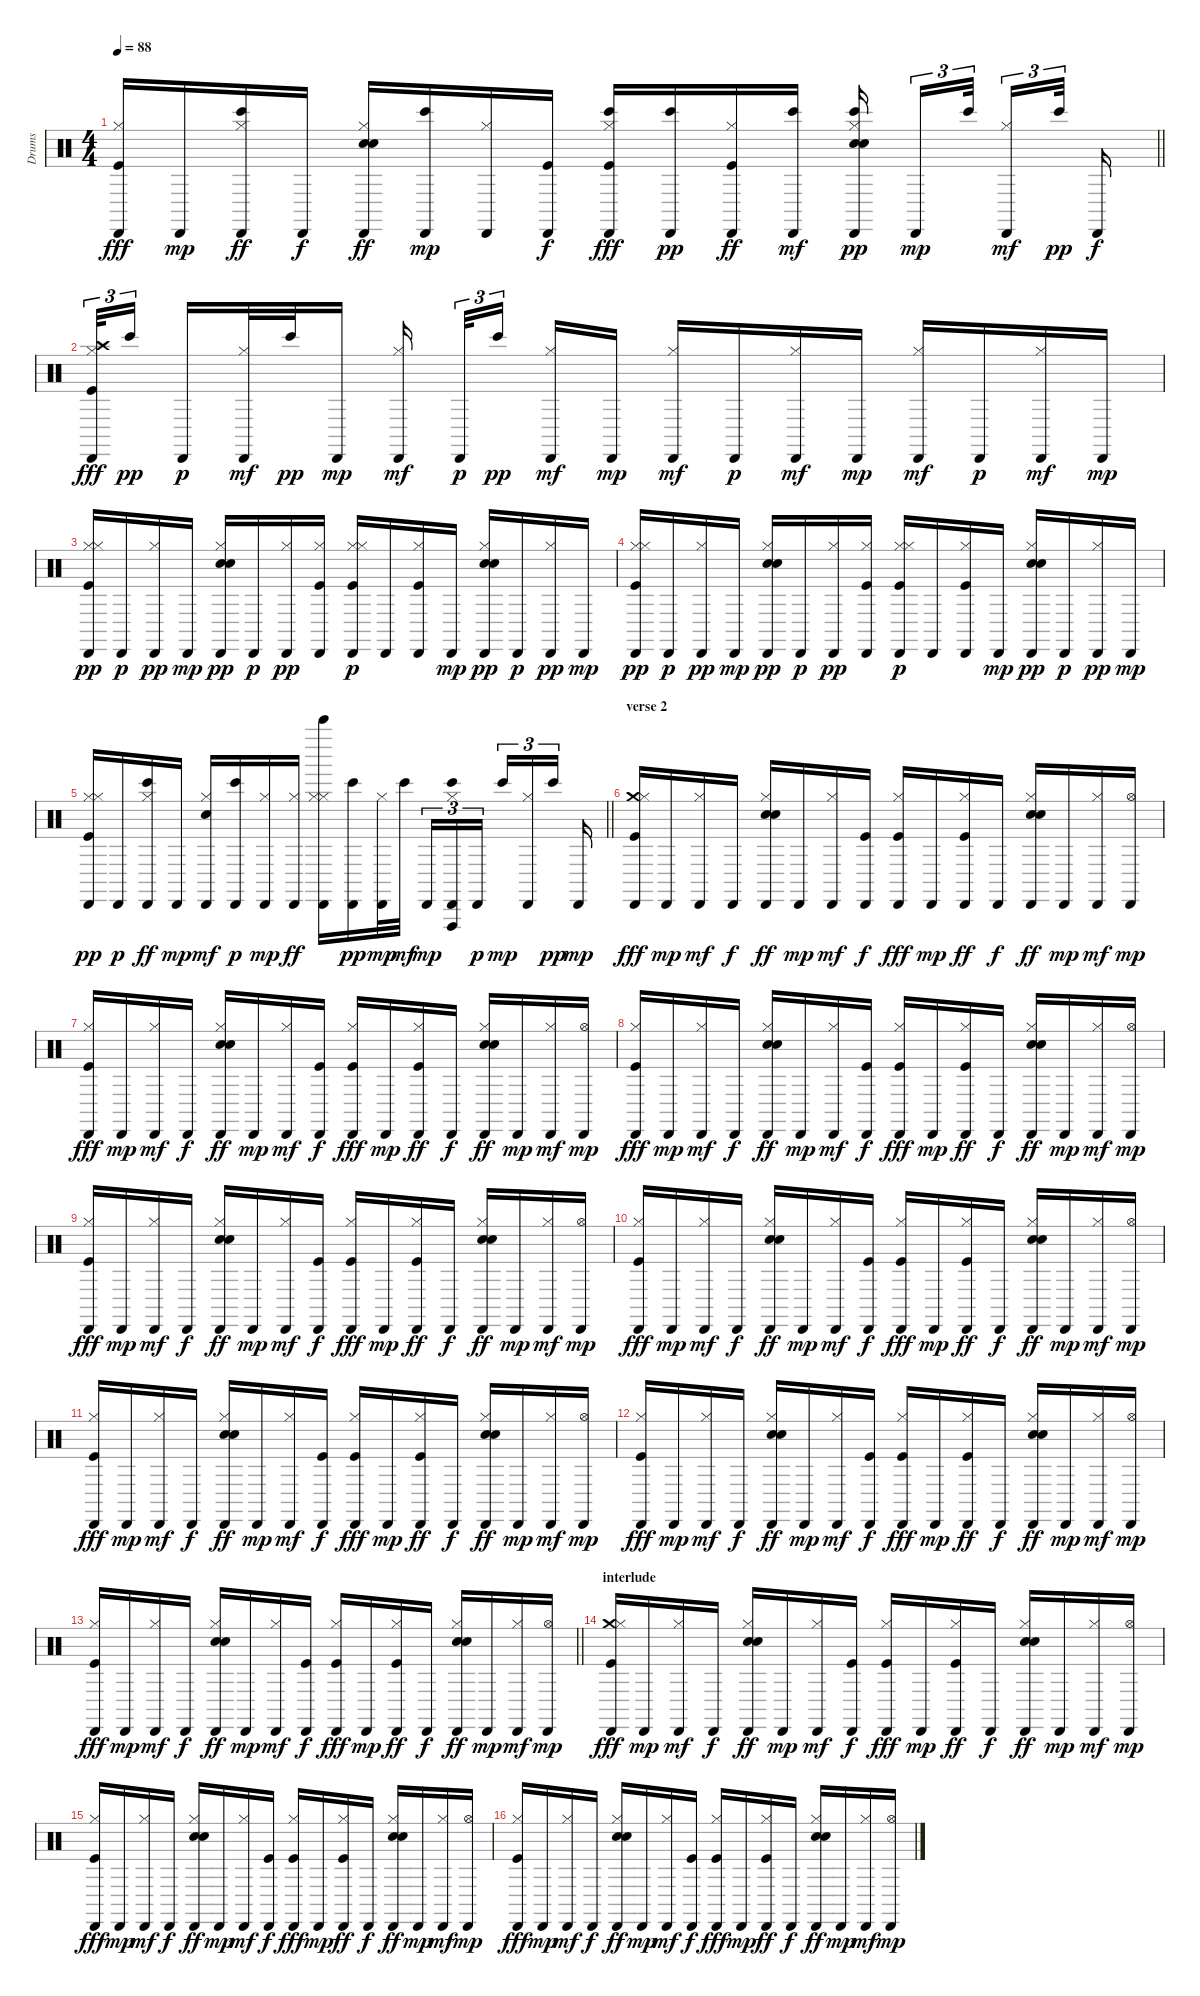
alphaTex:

\track ("Drums" "Drums") {instrument percussion}
\staff {score}
\articulation defaults
\ts (4 4)
\tempo 88
\clef neutral
\barLineRight lightlight
\ks c
("Cabasa (hit)" "Hi-Hat (closed)" "Kick (hit)").16{dy fff} "Cabasa (hit)".16{dy mp} ("Cabasa (hit)" "Hi-Hat (closed)" "Bongo High (hit)").16{dy ff} "Cabasa (hit)".16{dy f} ("Cabasa (hit)" "Electric Snare (hit)" "Snare (hit) 2" "Hi-Hat (closed)").16{dy ff} ("Cabasa (hit)" "Bongo High (hit)").16{dy mp} ("Cabasa (hit)" "Hi-Hat (closed)").16 ("Cabasa (hit)" "Kick (hit)").16{dy f} ("Cabasa (hit)" "Hi-Hat (closed)" "Bongo High (hit)" "Kick (hit)").16{dy fff} ("Cabasa (hit)" "Bongo High (hit)").16{dy pp} ("Cabasa (hit)" "Hi-Hat (closed)" "Kick (hit)").16{dy ff} ("Cabasa (hit)" "Bongo High (hit)").16{dy mf} ("Cabasa (hit)" "Electric Snare (hit)" "Snare (hit) 2" "Hi-Hat (closed)" "Bongo High (hit)").16{dy pp} "Cabasa (hit)".16{tu (3 2) dy mp} "Bongo High (hit)".32{tu (3 2)} ("Cabasa (hit)" "Hi-Hat (closed)").16{tu (3 2) dy mf} "Bongo High (hit)".32{tu (3 2) dy pp} "Cabasa (hit)".16{dy f} |
("Crash high (hit)" "Cabasa (hit)" "Hi-Hat (closed)" "Kick (hit)").32{tu (3 2) dy fff} "Bongo High (hit)".16{tu (3 2) dy pp} "Cabasa (hit)".16{dy p} ("Cabasa (hit)" "Hi-Hat (closed)").32{dy mf} "Bongo High (hit)".32{dy pp} "Cabasa (hit)".16{dy mp} ("Cabasa (hit)" "Hi-Hat (closed)").16{dy mf} "Cabasa (hit)".32{tu (3 2) dy p} "Bongo High (hit)".16{tu (3 2) dy pp} ("Cabasa (hit)" "Hi-Hat (closed)").16{dy mf} "Cabasa (hit)".16{dy mp} ("Cabasa (hit)" "Hi-Hat (closed)").16{dy mf} "Cabasa (hit)".16{dy p} ("Cabasa (hit)" "Hi-Hat (closed)").16{dy mf} "Cabasa (hit)".16{dy mp} ("Cabasa (hit)" "Hi-Hat (closed)").16{dy mf} "Cabasa (hit)".16{dy p} ("Cabasa (hit)" "Hi-Hat (closed)").16{dy mf} "Cabasa (hit)".16{dy mp} |
("Cabasa (hit)" "Hi-Hat (closed)" "Hi-Hat (closed)" "Kick (hit)").16{dy pp} "Cabasa (hit)".16{dy p} ("Cabasa (hit)" "Hi-Hat (closed)").16{dy pp} "Cabasa (hit)".16{dy mp} ("Cabasa (hit)" "Hand Clap (hit)" "Snare (hit) 2" "Hi-Hat (closed)").16{dy pp} "Cabasa (hit)".16{dy p} ("Cabasa (hit)" "Hi-Hat (closed)").16{dy pp} ("Cabasa (hit)" "Hi-Hat (closed)" "Kick (hit)").16 ("Cabasa (hit)" "Hi-Hat (closed)" "Hi-Hat (closed)" "Kick (hit)").16{dy p} "Cabasa (hit)".16 ("Cabasa (hit)" "Hi-Hat (closed)" "Kick (hit)").16 "Cabasa (hit)".16{dy mp} ("Cabasa (hit)" "Hand Clap (hit)" "Snare (hit) 2" "Hi-Hat (closed)").16{dy pp} "Cabasa (hit)".16{dy p} ("Cabasa (hit)" "Hi-Hat (closed)").16{dy pp} "Cabasa (hit)".16{dy mp} |
("Cabasa (hit)" "Hi-Hat (closed)" "Hi-Hat (closed)" "Kick (hit)").16{dy pp} "Cabasa (hit)".16{dy p} ("Cabasa (hit)" "Hi-Hat (closed)").16{dy pp} "Cabasa (hit)".16{dy mp} ("Cabasa (hit)" "Hand Clap (hit)" "Snare (hit) 2" "Hi-Hat (closed)").16{dy pp} "Cabasa (hit)".16{dy p} ("Cabasa (hit)" "Hi-Hat (closed)").16{dy pp} ("Cabasa (hit)" "Hi-Hat (closed)" "Kick (hit)").16 ("Cabasa (hit)" "Hi-Hat (closed)" "Hi-Hat (closed)" "Kick (hit)").16{dy p} "Cabasa (hit)".16 ("Cabasa (hit)" "Hi-Hat (closed)" "Kick (hit)").16 "Cabasa (hit)".16{dy mp} ("Cabasa (hit)" "Hand Clap (hit)" "Snare (hit) 2" "Hi-Hat (closed)").16{dy pp} "Cabasa (hit)".16{dy p} ("Cabasa (hit)" "Hi-Hat (closed)").16{dy pp} "Cabasa (hit)".16{dy mp} |
\barLineRight lightlight
("Cabasa (hit)" "Hi-Hat (closed)" "Hi-Hat (closed)" "Kick (hit)").16{dy pp} "Cabasa (hit)".16{dy p} ("Cabasa (hit)" "Hi-Hat (closed)" "Bongo High (hit)").16{dy ff} "Cabasa (hit)".16{dy mp} ("Cabasa (hit)" "Snare (hit) 2" "Hi-Hat (closed)").16{dy mf} ("Cabasa (hit)" "Bongo High (hit)").16{dy p} ("Cabasa (hit)" "Hi-Hat (closed)").16{dy mp} ("Cabasa (hit)" "Hi-Hat (closed)").16{dy ff} ("Cabasa (hit)" "Bell Tree (hit)" "Hi-Hat (closed)" "Hi-Hat (closed)").16 ("Cabasa (hit)" "Bongo High (hit)").16{dy pp} ("Cabasa (hit)" "Hi-Hat (closed)").32{dy mp} "Bongo High (hit)".32{dy mf} "Cabasa (hit)".16{tu (3 2) dy mp} ("Cabasa (hit)" "Vibraslap (hit)" "Hi-Hat (closed)" "Bongo High (hit)").16{tu (3 2)} "Cabasa (hit)".16{tu (3 2) dy p} "Bongo High (hit)".16{tu (3 2) dy mp} ("Cabasa (hit)" "Hi-Hat (closed)").16{tu (3 2)} "Bongo High (hit)".16{tu (3 2) dy pp} "Cabasa (hit)".16{dy mp} |
\section ("" "verse 2")
("Cabasa (hit)" "Crash medium (hit)" "Hi-Hat (closed)" "Kick (hit)").16{dy fff} "Cabasa (hit)".16{dy mp} ("Cabasa (hit)" "Hi-Hat (closed)").16{dy mf} "Cabasa (hit)".16{dy f} ("Cabasa (hit)" "Electric Snare (hit)" "Snare (hit) 2" "Hi-Hat (closed)").16{dy ff} "Cabasa (hit)".16{dy mp} ("Cabasa (hit)" "Hi-Hat (closed)").16{dy mf} ("Cabasa (hit)" "Kick (hit)").16{dy f} ("Cabasa (hit)" "Hi-Hat (closed)" "Kick (hit)").16{dy fff} "Cabasa (hit)".16{dy mp} ("Cabasa (hit)" "Hi-Hat (closed)" "Kick (hit)").16{dy ff} "Cabasa (hit)".16{dy f} ("Cabasa (hit)" "Electric Snare (hit)" "Snare (hit) 2" "Hi-Hat (closed)").16{dy ff} "Cabasa (hit)".16{dy mp} ("Cabasa (hit)" "Hi-Hat (closed)").16{dy mf} ("Cabasa (hit)" "Hi-Hat (open)").16{dy mp} |
("Cabasa (hit)" "Hi-Hat (closed)" "Kick (hit)").16{dy fff} "Cabasa (hit)".16{dy mp} ("Cabasa (hit)" "Hi-Hat (closed)").16{dy mf} "Cabasa (hit)".16{dy f} ("Cabasa (hit)" "Electric Snare (hit)" "Snare (hit) 2" "Hi-Hat (closed)").16{dy ff} "Cabasa (hit)".16{dy mp} ("Cabasa (hit)" "Hi-Hat (closed)").16{dy mf} ("Cabasa (hit)" "Kick (hit)").16{dy f} ("Cabasa (hit)" "Hi-Hat (closed)" "Kick (hit)").16{dy fff} "Cabasa (hit)".16{dy mp} ("Cabasa (hit)" "Hi-Hat (closed)" "Kick (hit)").16{dy ff} "Cabasa (hit)".16{dy f} ("Cabasa (hit)" "Electric Snare (hit)" "Snare (hit) 2" "Hi-Hat (closed)").16{dy ff} "Cabasa (hit)".16{dy mp} ("Cabasa (hit)" "Hi-Hat (closed)").16{dy mf} ("Cabasa (hit)" "Hi-Hat (open)").16{dy mp} |
("Cabasa (hit)" "Hi-Hat (closed)" "Kick (hit)").16{dy fff} "Cabasa (hit)".16{dy mp} ("Cabasa (hit)" "Hi-Hat (closed)").16{dy mf} "Cabasa (hit)".16{dy f} ("Cabasa (hit)" "Electric Snare (hit)" "Snare (hit) 2" "Hi-Hat (closed)").16{dy ff} "Cabasa (hit)".16{dy mp} ("Cabasa (hit)" "Hi-Hat (closed)").16{dy mf} ("Cabasa (hit)" "Kick (hit)").16{dy f} ("Cabasa (hit)" "Hi-Hat (closed)" "Kick (hit)").16{dy fff} "Cabasa (hit)".16{dy mp} ("Cabasa (hit)" "Hi-Hat (closed)" "Kick (hit)").16{dy ff} "Cabasa (hit)".16{dy f} ("Cabasa (hit)" "Electric Snare (hit)" "Snare (hit) 2" "Hi-Hat (closed)").16{dy ff} "Cabasa (hit)".16{dy mp} ("Cabasa (hit)" "Hi-Hat (closed)").16{dy mf} ("Cabasa (hit)" "Hi-Hat (open)").16{dy mp} |
("Cabasa (hit)" "Hi-Hat (closed)" "Kick (hit)").16{dy fff} "Cabasa (hit)".16{dy mp} ("Cabasa (hit)" "Hi-Hat (closed)").16{dy mf} "Cabasa (hit)".16{dy f} ("Cabasa (hit)" "Electric Snare (hit)" "Snare (hit) 2" "Hi-Hat (closed)").16{dy ff} "Cabasa (hit)".16{dy mp} ("Cabasa (hit)" "Hi-Hat (closed)").16{dy mf} ("Cabasa (hit)" "Kick (hit)").16{dy f} ("Cabasa (hit)" "Hi-Hat (closed)" "Kick (hit)").16{dy fff} "Cabasa (hit)".16{dy mp} ("Cabasa (hit)" "Hi-Hat (closed)" "Kick (hit)").16{dy ff} "Cabasa (hit)".16{dy f} ("Cabasa (hit)" "Electric Snare (hit)" "Snare (hit) 2" "Hi-Hat (closed)").16{dy ff} "Cabasa (hit)".16{dy mp} ("Cabasa (hit)" "Hi-Hat (closed)").16{dy mf} ("Cabasa (hit)" "Hi-Hat (open)").16{dy mp} |
("Cabasa (hit)" "Hi-Hat (closed)" "Kick (hit)").16{dy fff} "Cabasa (hit)".16{dy mp} ("Cabasa (hit)" "Hi-Hat (closed)").16{dy mf} "Cabasa (hit)".16{dy f} ("Cabasa (hit)" "Electric Snare (hit)" "Snare (hit) 2" "Hi-Hat (closed)").16{dy ff} "Cabasa (hit)".16{dy mp} ("Cabasa (hit)" "Hi-Hat (closed)").16{dy mf} ("Cabasa (hit)" "Kick (hit)").16{dy f} ("Cabasa (hit)" "Hi-Hat (closed)" "Kick (hit)").16{dy fff} "Cabasa (hit)".16{dy mp} ("Cabasa (hit)" "Hi-Hat (closed)" "Kick (hit)").16{dy ff} "Cabasa (hit)".16{dy f} ("Cabasa (hit)" "Electric Snare (hit)" "Snare (hit) 2" "Hi-Hat (closed)").16{dy ff} "Cabasa (hit)".16{dy mp} ("Cabasa (hit)" "Hi-Hat (closed)").16{dy mf} ("Cabasa (hit)" "Hi-Hat (open)").16{dy mp} |
("Cabasa (hit)" "Hi-Hat (closed)" "Kick (hit)").16{dy fff} "Cabasa (hit)".16{dy mp} ("Cabasa (hit)" "Hi-Hat (closed)").16{dy mf} "Cabasa (hit)".16{dy f} ("Cabasa (hit)" "Electric Snare (hit)" "Snare (hit) 2" "Hi-Hat (closed)").16{dy ff} "Cabasa (hit)".16{dy mp} ("Cabasa (hit)" "Hi-Hat (closed)").16{dy mf} ("Cabasa (hit)" "Kick (hit)").16{dy f} ("Cabasa (hit)" "Hi-Hat (closed)" "Kick (hit)").16{dy fff} "Cabasa (hit)".16{dy mp} ("Cabasa (hit)" "Hi-Hat (closed)" "Kick (hit)").16{dy ff} "Cabasa (hit)".16{dy f} ("Cabasa (hit)" "Electric Snare (hit)" "Snare (hit) 2" "Hi-Hat (closed)").16{dy ff} "Cabasa (hit)".16{dy mp} ("Cabasa (hit)" "Hi-Hat (closed)").16{dy mf} ("Cabasa (hit)" "Hi-Hat (open)").16{dy mp} |
("Cabasa (hit)" "Hi-Hat (closed)" "Kick (hit)").16{dy fff} "Cabasa (hit)".16{dy mp} ("Cabasa (hit)" "Hi-Hat (closed)").16{dy mf} "Cabasa (hit)".16{dy f} ("Cabasa (hit)" "Electric Snare (hit)" "Snare (hit) 2" "Hi-Hat (closed)").16{dy ff} "Cabasa (hit)".16{dy mp} ("Cabasa (hit)" "Hi-Hat (closed)").16{dy mf} ("Cabasa (hit)" "Kick (hit)").16{dy f} ("Cabasa (hit)" "Hi-Hat (closed)" "Kick (hit)").16{dy fff} "Cabasa (hit)".16{dy mp} ("Cabasa (hit)" "Hi-Hat (closed)" "Kick (hit)").16{dy ff} "Cabasa (hit)".16{dy f} ("Cabasa (hit)" "Electric Snare (hit)" "Snare (hit) 2" "Hi-Hat (closed)").16{dy ff} "Cabasa (hit)".16{dy mp} ("Cabasa (hit)" "Hi-Hat (closed)").16{dy mf} ("Cabasa (hit)" "Hi-Hat (open)").16{dy mp} |
\barLineRight lightlight
("Cabasa (hit)" "Hi-Hat (closed)" "Kick (hit)").16{dy fff} "Cabasa (hit)".16{dy mp} ("Cabasa (hit)" "Hi-Hat (closed)").16{dy mf} "Cabasa (hit)".16{dy f} ("Cabasa (hit)" "Electric Snare (hit)" "Snare (hit) 2" "Hi-Hat (closed)").16{dy ff} "Cabasa (hit)".16{dy mp} ("Cabasa (hit)" "Hi-Hat (closed)").16{dy mf} ("Cabasa (hit)" "Kick (hit)").16{dy f} ("Cabasa (hit)" "Hi-Hat (closed)" "Kick (hit)").16{dy fff} "Cabasa (hit)".16{dy mp} ("Cabasa (hit)" "Hi-Hat (closed)" "Kick (hit)").16{dy ff} "Cabasa (hit)".16{dy f} ("Cabasa (hit)" "Electric Snare (hit)" "Snare (hit) 2" "Hi-Hat (closed)").16{dy ff} "Cabasa (hit)".16{dy mp} ("Cabasa (hit)" "Hi-Hat (closed)").16{dy mf} ("Cabasa (hit)" "Hi-Hat (open)").16{dy mp} |
\section ("" "interlude")
("Cabasa (hit)" "Crash medium (hit)" "Hi-Hat (closed)" "Kick (hit)").16{dy fff} "Cabasa (hit)".16{dy mp} ("Cabasa (hit)" "Hi-Hat (closed)").16{dy mf} "Cabasa (hit)".16{dy f} ("Cabasa (hit)" "Electric Snare (hit)" "Snare (hit) 2" "Hi-Hat (closed)").16{dy ff} "Cabasa (hit)".16{dy mp} ("Cabasa (hit)" "Hi-Hat (closed)").16{dy mf} ("Cabasa (hit)" "Kick (hit)").16{dy f} ("Cabasa (hit)" "Hi-Hat (closed)" "Kick (hit)").16{dy fff} "Cabasa (hit)".16{dy mp} ("Cabasa (hit)" "Hi-Hat (closed)" "Kick (hit)").16{dy ff} "Cabasa (hit)".16{dy f} ("Cabasa (hit)" "Electric Snare (hit)" "Snare (hit) 2" "Hi-Hat (closed)").16{dy ff} "Cabasa (hit)".16{dy mp} ("Cabasa (hit)" "Hi-Hat (closed)").16{dy mf} ("Cabasa (hit)" "Hi-Hat (open)").16{dy mp} |
("Cabasa (hit)" "Hi-Hat (closed)" "Kick (hit)").16{dy fff} "Cabasa (hit)".16{dy mp} ("Cabasa (hit)" "Hi-Hat (closed)").16{dy mf} "Cabasa (hit)".16{dy f} ("Cabasa (hit)" "Electric Snare (hit)" "Snare (hit) 2" "Hi-Hat (closed)").16{dy ff} "Cabasa (hit)".16{dy mp} ("Cabasa (hit)" "Hi-Hat (closed)").16{dy mf} ("Cabasa (hit)" "Kick (hit)").16{dy f} ("Cabasa (hit)" "Hi-Hat (closed)" "Kick (hit)").16{dy fff} "Cabasa (hit)".16{dy mp} ("Cabasa (hit)" "Hi-Hat (closed)" "Kick (hit)").16{dy ff} "Cabasa (hit)".16{dy f} ("Cabasa (hit)" "Electric Snare (hit)" "Snare (hit) 2" "Hi-Hat (closed)").16{dy ff} "Cabasa (hit)".16{dy mp} ("Cabasa (hit)" "Hi-Hat (closed)").16{dy mf} ("Cabasa (hit)" "Hi-Hat (open)").16{dy mp} |
("Cabasa (hit)" "Hi-Hat (closed)" "Kick (hit)").16{dy fff} "Cabasa (hit)".16{dy mp} ("Cabasa (hit)" "Hi-Hat (closed)").16{dy mf} "Cabasa (hit)".16{dy f} ("Cabasa (hit)" "Electric Snare (hit)" "Snare (hit) 2" "Hi-Hat (closed)").16{dy ff} "Cabasa (hit)".16{dy mp} ("Cabasa (hit)" "Hi-Hat (closed)").16{dy mf} ("Cabasa (hit)" "Kick (hit)").16{dy f} ("Cabasa (hit)" "Hi-Hat (closed)" "Kick (hit)").16{dy fff} "Cabasa (hit)".16{dy mp} ("Cabasa (hit)" "Hi-Hat (closed)" "Kick (hit)").16{dy ff} "Cabasa (hit)".16{dy f} ("Cabasa (hit)" "Electric Snare (hit)" "Snare (hit) 2" "Hi-Hat (closed)").16{dy ff} "Cabasa (hit)".16{dy mp} ("Cabasa (hit)" "Hi-Hat (closed)").16{dy mf} ("Cabasa (hit)" "Hi-Hat (open)").16{dy mp}
